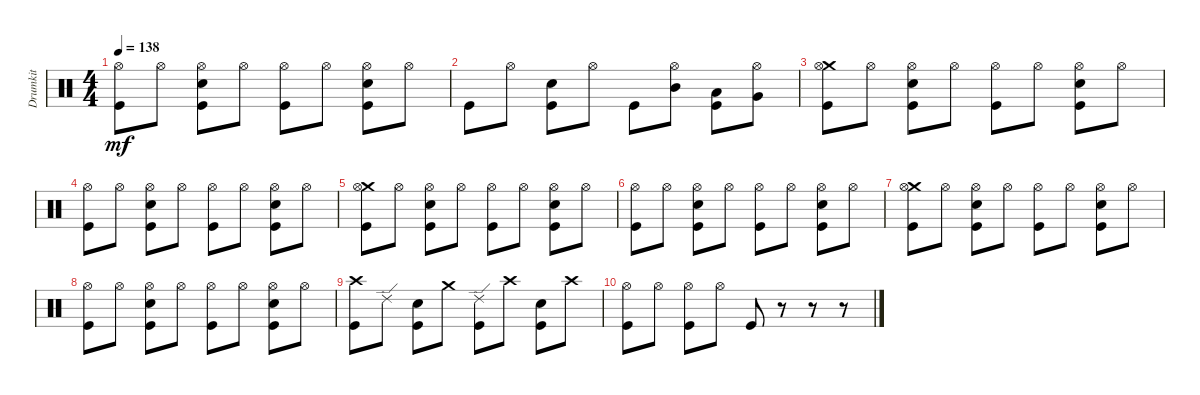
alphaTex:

\track ("Drumkit" "Drumkit") {instrument percussion}
\staff {score}
\articulation defaults
\ts (4 4)
\tempo 138
\clef neutral
\ks c
("Kick (hit)" "Hi-Hat (open)").8{dy mf} "Hi-Hat (open)".8 ("Snare (hit) 2" "Hi-Hat (open)" "Kick (hit)").8 "Hi-Hat (open)".8 ("Kick (hit)" "Hi-Hat (open)").8 "Hi-Hat (open)".8 ("Snare (hit) 2" "Hi-Hat (open)" "Kick (hit)").8 "Hi-Hat (open)".8 |
"Kick (hit)".8 "Hi-Hat (open)".8 ("Snare (hit) 2" "Kick (hit)").8 "Hi-Hat (open)".8 "Kick (hit)".8 ("Hi-Hat (open)" "Mid Tom (hit)").8 ("Low Tom (hit)" "Kick (hit)").8 ("Hi-Hat (open)" "Very Low Tom (hit)").8 |
("Kick (hit)" "Crash medium (hit)" "Hi-Hat (open)").8 "Hi-Hat (open)".8 ("Snare (hit) 2" "Hi-Hat (open)" "Kick (hit)").8 "Hi-Hat (open)".8 ("Kick (hit)" "Hi-Hat (open)").8 "Hi-Hat (open)".8 ("Snare (hit) 2" "Hi-Hat (open)" "Kick (hit)").8 "Hi-Hat (open)".8 |
("Kick (hit)" "Hi-Hat (open)").8 "Hi-Hat (open)".8 ("Snare (hit) 2" "Hi-Hat (open)" "Kick (hit)").8 "Hi-Hat (open)".8 ("Kick (hit)" "Hi-Hat (open)").8 "Hi-Hat (open)".8 ("Snare (hit) 2" "Hi-Hat (open)" "Kick (hit)").8 "Hi-Hat (open)".8 |
("Kick (hit)" "Crash medium (hit)" "Hi-Hat (open)").8 "Hi-Hat (open)".8 ("Snare (hit) 2" "Hi-Hat (open)" "Kick (hit)").8 "Hi-Hat (open)".8 ("Kick (hit)" "Hi-Hat (open)").8 "Hi-Hat (open)".8 ("Snare (hit) 2" "Hi-Hat (open)" "Kick (hit)").8 "Hi-Hat (open)".8 |
("Kick (hit)" "Hi-Hat (open)").8 "Hi-Hat (open)".8 ("Snare (hit) 2" "Hi-Hat (open)" "Kick (hit)").8 "Hi-Hat (open)".8 ("Kick (hit)" "Hi-Hat (open)").8 "Hi-Hat (open)".8 ("Snare (hit) 2" "Hi-Hat (open)" "Kick (hit)").8 "Hi-Hat (open)".8 |
("Kick (hit)" "Crash medium (hit)" "Hi-Hat (open)").8 "Hi-Hat (open)".8 ("Snare (hit) 2" "Hi-Hat (open)" "Kick (hit)").8 "Hi-Hat (open)".8 ("Kick (hit)" "Hi-Hat (open)").8 "Hi-Hat (open)".8 ("Snare (hit) 2" "Hi-Hat (open)" "Kick (hit)").8 "Hi-Hat (open)".8 |
("Kick (hit)" "Hi-Hat (open)").8 "Hi-Hat (open)".8 ("Snare (hit) 2" "Hi-Hat (open)" "Kick (hit)").8 "Hi-Hat (open)".8 ("Kick (hit)" "Hi-Hat (open)").8 "Hi-Hat (open)".8 ("Snare (hit) 2" "Hi-Hat (open)" "Kick (hit)").8 "Hi-Hat (open)".8 |
("Crash high (hit)" "Kick (hit)").8 "Ride (edge) 2".8 ("Snare (hit) 2" "Kick (hit)").8 "Crash medium (hit)".8 ("Ride (edge) 2" "Kick (hit)").8 "Crash high (hit)".8 ("Snare (hit) 2" "Kick (hit)").8 "Crash high (hit)".8 |
("Kick (hit)" "Hi-Hat (open)").8 "Hi-Hat (open)".8 ("Hi-Hat (open)" "Kick (hit)").8 "Hi-Hat (open)".8 "Kick (hit)".8 r.8 r.8 r.8
